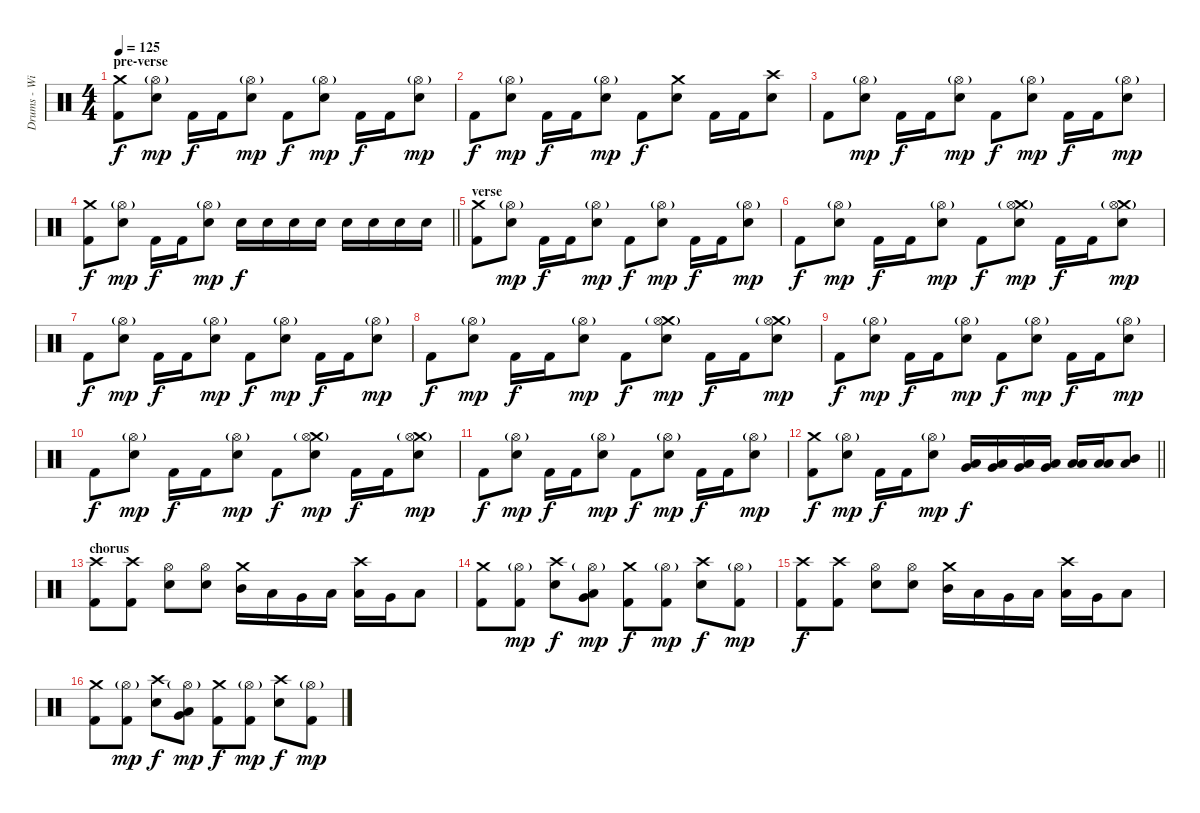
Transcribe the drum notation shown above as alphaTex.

\track ("Drums - Willie Buchan" "Drums - Wi") {instrument percussion}
\staff {score}
\articulation defaults
\ts (4 4)
\section ("" "pre-verse")
\tempo 125
\clef neutral
\ks c
("Crash medium (hit)" "Kick (hit) 2").8{dy f} ("Hi-Hat (open)"{g} "Electric Snare (hit)").8{dy mp} "Kick (hit) 2".16{dy f} "Kick (hit) 2".16 ("Hi-Hat (open)"{g} "Electric Snare (hit)").8{dy mp} "Kick (hit) 2".8{dy f} ("Hi-Hat (open)"{g} "Electric Snare (hit)").8{dy mp} "Kick (hit) 2".16{dy f} "Kick (hit) 2".16 ("Hi-Hat (open)"{g} "Electric Snare (hit)").8{dy mp} |
"Kick (hit) 2".8{dy f} ("Hi-Hat (open)"{g} "Electric Snare (hit)").8{dy mp} "Kick (hit) 2".16{dy f} "Kick (hit) 2".16 ("Hi-Hat (open)"{g} "Electric Snare (hit)").8{dy mp} "Kick (hit) 2".8{dy f} ("Crash medium (hit)" "Electric Snare (hit)").8 "Kick (hit) 2".16 "Kick (hit) 2".16 ("Crash high (hit)" "Electric Snare (hit)").8 |
"Kick (hit) 2".8 ("Hi-Hat (open)"{g} "Electric Snare (hit)").8{dy mp} "Kick (hit) 2".16{dy f} "Kick (hit) 2".16 ("Hi-Hat (open)"{g} "Electric Snare (hit)").8{dy mp} "Kick (hit) 2".8{dy f} ("Hi-Hat (open)"{g} "Electric Snare (hit)").8{dy mp} "Kick (hit) 2".16{dy f} "Kick (hit) 2".16 ("Hi-Hat (open)"{g} "Electric Snare (hit)").8{dy mp} |
\barLineRight lightlight
("Crash medium (hit)" "Kick (hit) 2").8{dy f} ("Hi-Hat (open)"{g} "Electric Snare (hit)").8{dy mp} "Kick (hit) 2".16{dy f} "Kick (hit) 2".16 ("Hi-Hat (open)"{g} "Electric Snare (hit)").8{dy mp} "Electric Snare (hit)".16{dy f} "Electric Snare (hit)".16 "Electric Snare (hit)".16 "Electric Snare (hit)".16 "Electric Snare (hit)".16 "Electric Snare (hit)".16 "Electric Snare (hit)".16 "Electric Snare (hit)".16 |
\section ("" "verse")
("Crash medium (hit)" "Kick (hit) 2").8 ("Hi-Hat (open)"{g} "Electric Snare (hit)").8{dy mp} "Kick (hit) 2".16{dy f} "Kick (hit) 2".16 ("Hi-Hat (open)"{g} "Electric Snare (hit)").8{dy mp} "Kick (hit) 2".8{dy f} ("Hi-Hat (open)"{g} "Electric Snare (hit)").8{dy mp} "Kick (hit) 2".16{dy f} "Kick (hit) 2".16 ("Hi-Hat (open)"{g} "Electric Snare (hit)").8{dy mp} |
"Kick (hit) 2".8{dy f} ("Hi-Hat (open)"{g} "Electric Snare (hit)").8{dy mp} "Kick (hit) 2".16{dy f} "Kick (hit) 2".16 ("Hi-Hat (open)"{g} "Electric Snare (hit)").8{dy mp} "Kick (hit) 2".8{dy f} ("Crash medium (hit)"{g} "Hi-Hat (open)"{g} "Electric Snare (hit)").8{dy mp} "Kick (hit) 2".16{dy f} "Kick (hit) 2".16 ("Crash medium (hit)"{g} "Hi-Hat (open)"{g} "Electric Snare (hit)").8{dy mp} |
"Kick (hit) 2".8{dy f} ("Hi-Hat (open)"{g} "Electric Snare (hit)").8{dy mp} "Kick (hit) 2".16{dy f} "Kick (hit) 2".16 ("Hi-Hat (open)"{g} "Electric Snare (hit)").8{dy mp} "Kick (hit) 2".8{dy f} ("Hi-Hat (open)"{g} "Electric Snare (hit)").8{dy mp} "Kick (hit) 2".16{dy f} "Kick (hit) 2".16 ("Hi-Hat (open)"{g} "Electric Snare (hit)").8{dy mp} |
"Kick (hit) 2".8{dy f} ("Hi-Hat (open)"{g} "Electric Snare (hit)").8{dy mp} "Kick (hit) 2".16{dy f} "Kick (hit) 2".16 ("Hi-Hat (open)"{g} "Electric Snare (hit)").8{dy mp} "Kick (hit) 2".8{dy f} ("Crash medium (hit)"{g} "Hi-Hat (open)"{g} "Electric Snare (hit)").8{dy mp} "Kick (hit) 2".16{dy f} "Kick (hit) 2".16 ("Crash medium (hit)"{g} "Hi-Hat (open)"{g} "Electric Snare (hit)").8{dy mp} |
"Kick (hit) 2".8{dy f} ("Hi-Hat (open)"{g} "Electric Snare (hit)").8{dy mp} "Kick (hit) 2".16{dy f} "Kick (hit) 2".16 ("Hi-Hat (open)"{g} "Electric Snare (hit)").8{dy mp} "Kick (hit) 2".8{dy f} ("Hi-Hat (open)"{g} "Electric Snare (hit)").8{dy mp} "Kick (hit) 2".16{dy f} "Kick (hit) 2".16 ("Hi-Hat (open)"{g} "Electric Snare (hit)").8{dy mp} |
"Kick (hit) 2".8{dy f} ("Hi-Hat (open)"{g} "Electric Snare (hit)").8{dy mp} "Kick (hit) 2".16{dy f} "Kick (hit) 2".16 ("Hi-Hat (open)"{g} "Electric Snare (hit)").8{dy mp} "Kick (hit) 2".8{dy f} ("Crash medium (hit)"{g} "Hi-Hat (open)"{g} "Electric Snare (hit)").8{dy mp} "Kick (hit) 2".16{dy f} "Kick (hit) 2".16 ("Crash medium (hit)"{g} "Hi-Hat (open)"{g} "Electric Snare (hit)").8{dy mp} |
"Kick (hit) 2".8{dy f} ("Hi-Hat (open)"{g} "Electric Snare (hit)").8{dy mp} "Kick (hit) 2".16{dy f} "Kick (hit) 2".16 ("Hi-Hat (open)"{g} "Electric Snare (hit)").8{dy mp} "Kick (hit) 2".8{dy f} ("Hi-Hat (open)"{g} "Electric Snare (hit)").8{dy mp} "Kick (hit) 2".16{dy f} "Kick (hit) 2".16 ("Hi-Hat (open)"{g} "Electric Snare (hit)").8{dy mp} |
\barLineRight lightlight
("Crash medium (hit)" "Kick (hit) 2").8{dy f} ("Hi-Hat (open)"{g} "Electric Snare (hit)").8{dy mp} "Kick (hit) 2".16{dy f} "Kick (hit) 2".16 ("Hi-Hat (open)"{g} "Electric Snare (hit)").8{dy mp} ("Very Low Tom (hit)" "Low Floor Tom (hit)").16{dy f} ("Very Low Tom (hit)" "Low Floor Tom (hit)").16 ("Very Low Tom (hit)" "Low Floor Tom (hit)").16 ("Very Low Tom (hit)" "Low Floor Tom (hit)").16 ("Low Tom (hit)" "Low Floor Tom (hit)").16 ("Low Tom (hit)" "Low Floor Tom (hit)").16 ("Mid Tom (hit)" "Low Floor Tom (hit)").8 |
\section ("" "chorus")
("Crash high (hit)" "Kick (hit) 2").8 ("Crash high (hit)" "Kick (hit) 2").8 ("Hi-Hat (open)" "Electric Snare (hit)").8 ("Hi-Hat (open)" "Electric Snare (hit)").8 ("Crash medium (hit)" "Mid Tom (hit)").16 "Low Tom (hit)".16 "Very Low Tom (hit)".16 "Low Floor Tom (hit)".16 ("Crash high (hit)" "Low Tom (hit)").16 "Very Low Tom (hit)".16 "Low Floor Tom (hit)".8 |
("Crash medium (hit)" "Kick (hit) 2").8 ("Hi-Hat (open)"{g} "Kick (hit) 2").8{dy mp} ("Crash high (hit)" "Electric Snare (hit)").8{dy f} ("Hi-Hat (open)"{g} "Low Tom (hit)" "Very Low Tom (hit)").8{dy mp} ("Crash medium (hit)" "Kick (hit) 2").8{dy f} ("Hi-Hat (open)"{g} "Kick (hit) 2").8{dy mp} ("Crash high (hit)" "Electric Snare (hit)").8{dy f} ("Hi-Hat (open)"{g} "Kick (hit) 2").8{dy mp} |
("Crash high (hit)" "Kick (hit) 2").8{dy f} ("Crash high (hit)" "Kick (hit) 2").8 ("Hi-Hat (open)" "Electric Snare (hit)").8 ("Hi-Hat (open)" "Electric Snare (hit)").8 ("Crash medium (hit)" "Mid Tom (hit)").16 "Low Tom (hit)".16 "Very Low Tom (hit)".16 "Low Floor Tom (hit)".16 ("Crash high (hit)" "Low Tom (hit)").16 "Very Low Tom (hit)".16 "Low Floor Tom (hit)".8 |
("Crash medium (hit)" "Kick (hit) 2").8 ("Hi-Hat (open)"{g} "Kick (hit) 2").8{dy mp} ("Crash high (hit)" "Electric Snare (hit)").8{dy f} ("Hi-Hat (open)"{g} "Low Tom (hit)" "Very Low Tom (hit)").8{dy mp} ("Crash medium (hit)" "Kick (hit) 2").8{dy f} ("Hi-Hat (open)"{g} "Kick (hit) 2").8{dy mp} ("Crash high (hit)" "Electric Snare (hit)").8{dy f} ("Hi-Hat (open)"{g} "Kick (hit) 2").8{dy mp}
